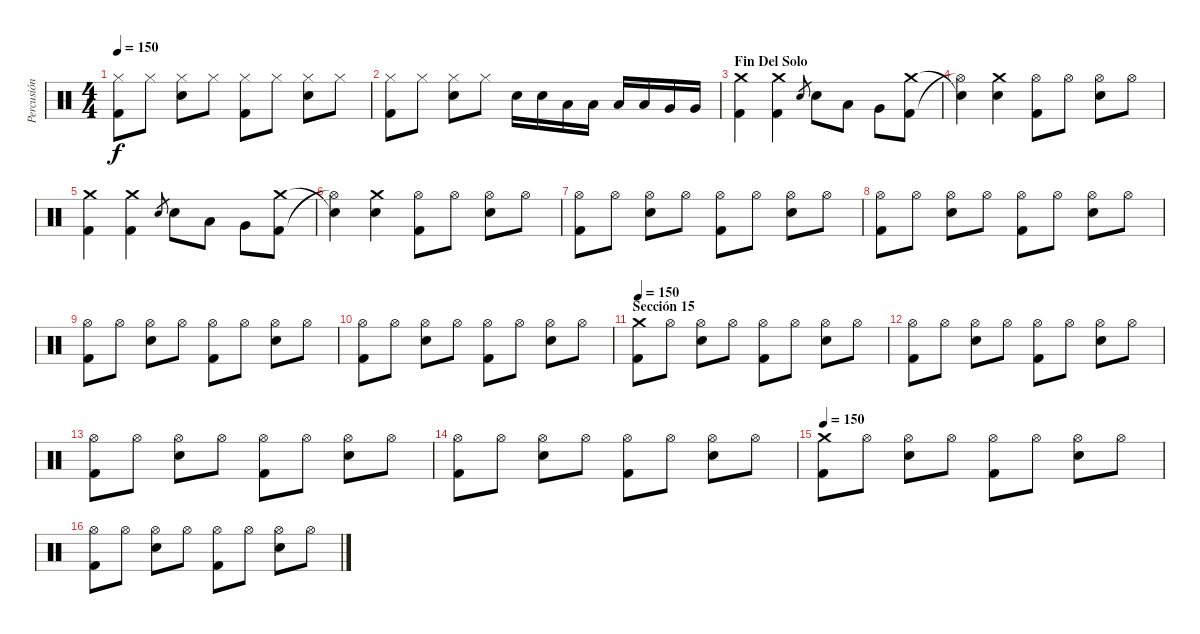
\track ("Percusión" "Percusión") {instrument percussion}
\staff {score}
\articulation defaults
\ts (4 4)
\tempo 150
\clef neutral
\ks c
("Hi-Hat (closed)" "Kick (hit) 2").8{dy f} "Hi-Hat (closed)".8 ("Hi-Hat (closed)" "Snare (hit) 2").8 "Hi-Hat (closed)".8 ("Hi-Hat (closed)" "Kick (hit) 2").8 "Hi-Hat (closed)".8 ("Hi-Hat (closed)" "Snare (hit) 2").8 "Hi-Hat (closed)".8 |
("Hi-Hat (closed)" "Kick (hit) 2").8 "Hi-Hat (closed)".8 ("Hi-Hat (closed)" "Snare (hit) 2").8 "Hi-Hat (closed)".8 "Snare (hit) 2".16 "Snare (hit) 2".16 "Low Tom (hit)".16 "Low Tom (hit)".16 "Low Tom (hit)".16 "Low Tom (hit)".16 "Very Low Tom (hit)".16 "Very Low Tom (hit)".16 |
\section ("" "Fin Del Solo")
("Crash medium (hit)" "Kick (hit) 2").4 ("Crash medium (hit)" "Kick (hit) 2").4 "Snare (hit) 2".8{gr} "Snare (hit) 2".8 "Low Tom (hit)".8 "Very Low Tom (hit)".8 ("Kick (hit) 2" "Crash medium (hit)").8 |
("Hi-Hat (open)"{t} "Snare (hit)"{t}).4 ("Crash medium (hit)" "Snare (hit) 2").4 ("Hi-Hat (open)" "Kick (hit) 2").8 "Hi-Hat (open)".8 ("Hi-Hat (open)" "Snare (hit) 2").8 "Hi-Hat (open)".8 |
("Crash medium (hit)" "Kick (hit) 2").4 ("Crash medium (hit)" "Kick (hit) 2").4 "Snare (hit) 2".8{gr} "Snare (hit) 2".8 "Low Tom (hit)".8 "Very Low Tom (hit)".8 ("Kick (hit) 2" "Crash medium (hit)").8 |
("Hi-Hat (open)"{t} "Snare (hit)"{t}).4 ("Crash medium (hit)" "Snare (hit) 2").4 ("Hi-Hat (open)" "Kick (hit) 2").8 "Hi-Hat (open)".8 ("Hi-Hat (open)" "Snare (hit) 2").8 "Hi-Hat (open)".8 |
("Hi-Hat (open)" "Kick (hit) 2").8 "Hi-Hat (open)".8 ("Hi-Hat (open)" "Snare (hit) 2").8 "Hi-Hat (open)".8 ("Hi-Hat (open)" "Kick (hit) 2").8 "Hi-Hat (open)".8 ("Hi-Hat (open)" "Snare (hit) 2").8 "Hi-Hat (open)".8 |
("Hi-Hat (open)" "Kick (hit) 2").8 "Hi-Hat (open)".8 ("Hi-Hat (open)" "Snare (hit) 2").8 "Hi-Hat (open)".8 ("Hi-Hat (open)" "Kick (hit) 2").8 "Hi-Hat (open)".8 ("Hi-Hat (open)" "Snare (hit) 2").8 "Hi-Hat (open)".8 |
("Hi-Hat (open)" "Kick (hit) 2").8 "Hi-Hat (open)".8 ("Hi-Hat (open)" "Snare (hit) 2").8 "Hi-Hat (open)".8 ("Hi-Hat (open)" "Kick (hit) 2").8 "Hi-Hat (open)".8 ("Hi-Hat (open)" "Snare (hit) 2").8 "Hi-Hat (open)".8 |
("Hi-Hat (open)" "Kick (hit) 2").8 "Hi-Hat (open)".8 ("Hi-Hat (open)" "Snare (hit) 2").8 "Hi-Hat (open)".8 ("Hi-Hat (open)" "Kick (hit) 2").8 "Hi-Hat (open)".8 ("Hi-Hat (open)" "Snare (hit) 2").8 "Hi-Hat (open)".8 |
\section ("" "Sección 15")
\tempo 150
("Crash medium (hit)" "Kick (hit) 2").8 "Hi-Hat (open)".8 ("Hi-Hat (open)" "Snare (hit) 2").8 "Hi-Hat (open)".8 ("Hi-Hat (open)" "Kick (hit) 2").8 "Hi-Hat (open)".8 ("Hi-Hat (open)" "Snare (hit) 2").8 "Hi-Hat (open)".8 |
("Hi-Hat (open)" "Kick (hit) 2").8 "Hi-Hat (open)".8 ("Hi-Hat (open)" "Snare (hit) 2").8 "Hi-Hat (open)".8 ("Hi-Hat (open)" "Kick (hit) 2").8 "Hi-Hat (open)".8 ("Hi-Hat (open)" "Snare (hit) 2").8 "Hi-Hat (open)".8 |
("Hi-Hat (open)" "Kick (hit) 2").8 "Hi-Hat (open)".8 ("Hi-Hat (open)" "Snare (hit) 2").8 "Hi-Hat (open)".8 ("Hi-Hat (open)" "Kick (hit) 2").8 "Hi-Hat (open)".8 ("Hi-Hat (open)" "Snare (hit) 2").8 "Hi-Hat (open)".8 |
("Hi-Hat (open)" "Kick (hit) 2").8 "Hi-Hat (open)".8 ("Hi-Hat (open)" "Snare (hit) 2").8 "Hi-Hat (open)".8 ("Hi-Hat (open)" "Kick (hit) 2").8 "Hi-Hat (open)".8 ("Hi-Hat (open)" "Snare (hit) 2").8 "Hi-Hat (open)".8 |
\tempo 150
("Crash medium (hit)" "Kick (hit) 2").8 "Hi-Hat (open)".8 ("Hi-Hat (open)" "Snare (hit) 2").8 "Hi-Hat (open)".8 ("Hi-Hat (open)" "Kick (hit) 2").8 "Hi-Hat (open)".8 ("Hi-Hat (open)" "Snare (hit) 2").8 "Hi-Hat (open)".8 |
("Hi-Hat (open)" "Kick (hit) 2").8 "Hi-Hat (open)".8 ("Hi-Hat (open)" "Snare (hit) 2").8 "Hi-Hat (open)".8 ("Hi-Hat (open)" "Kick (hit) 2").8 "Hi-Hat (open)".8 ("Hi-Hat (open)" "Snare (hit) 2").8 "Hi-Hat (open)".8
